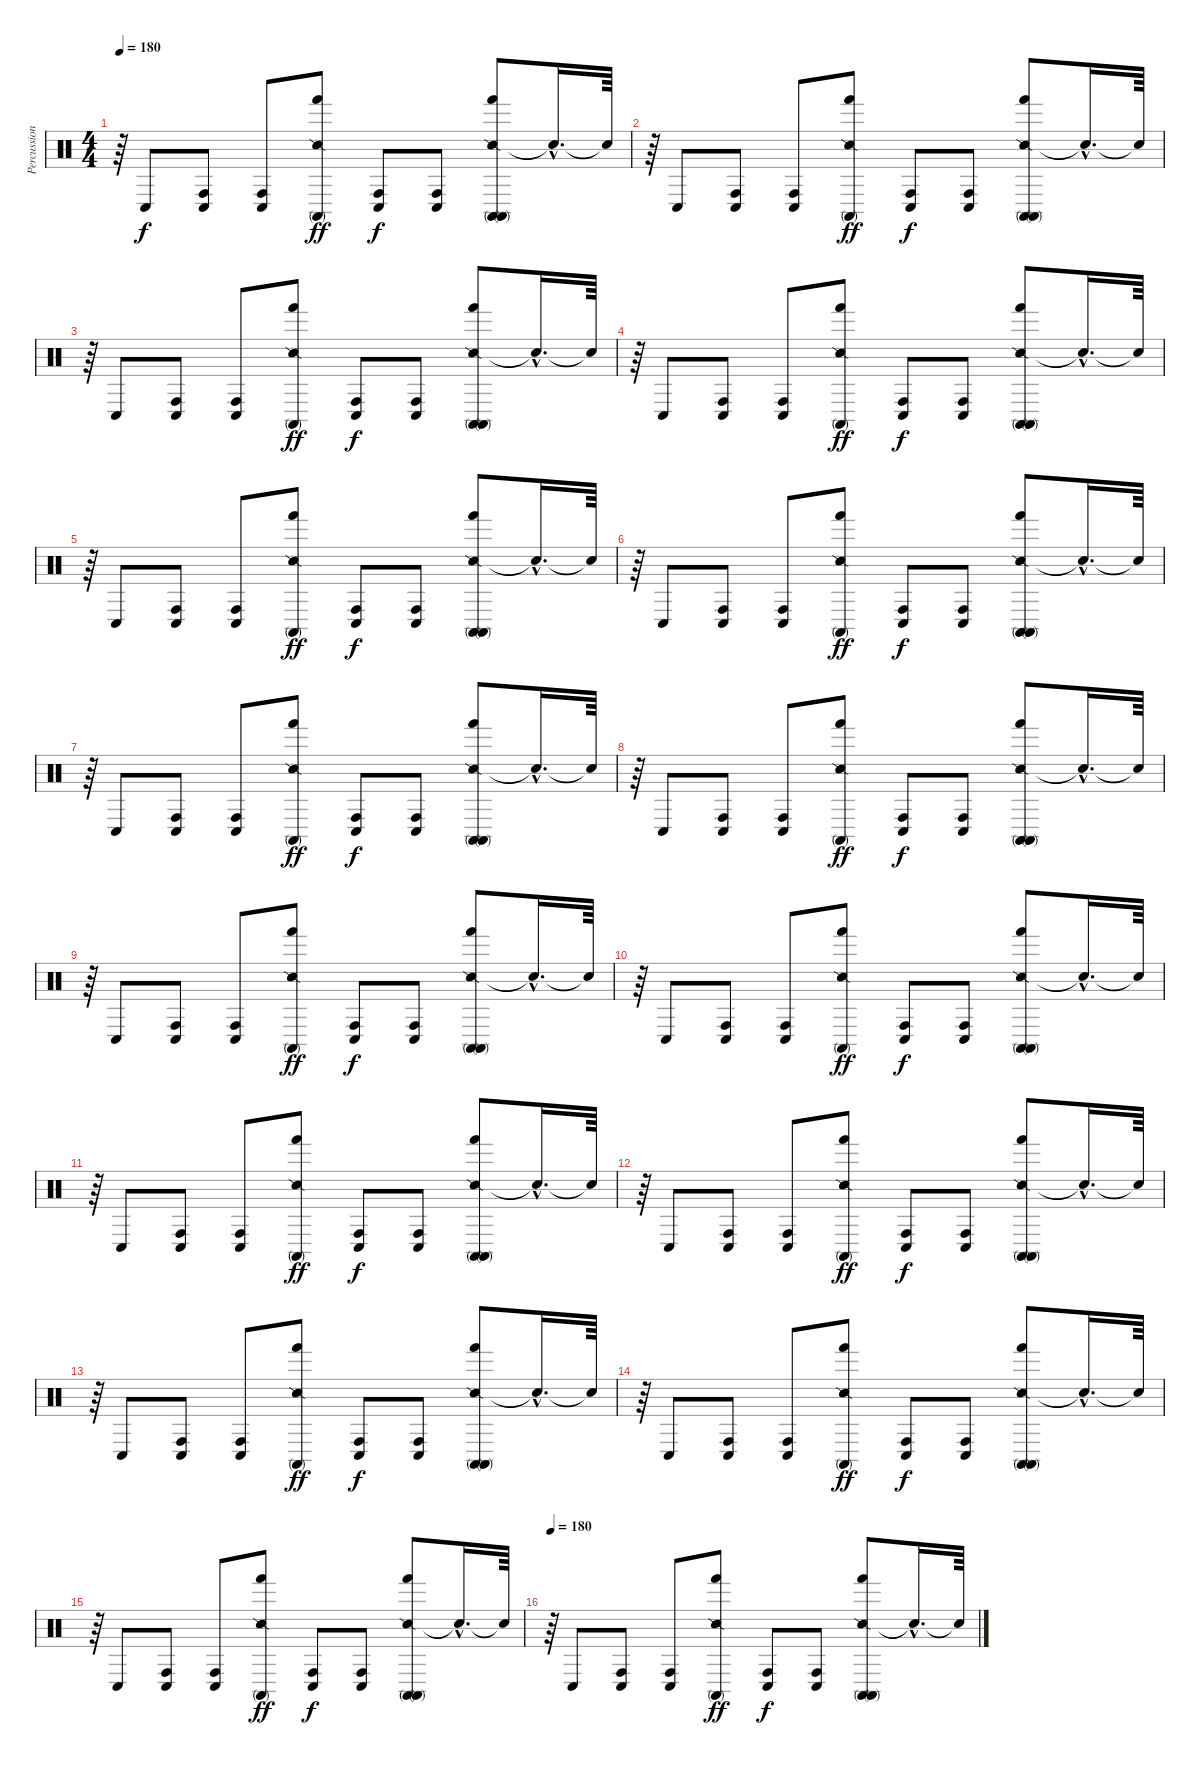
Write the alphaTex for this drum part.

\track ("Percussion" "Percussion") {instrument percussion}
\staff {score}
\articulation defaults
\ts (4 4)
\tempo 180
\clef neutral
\ks c
r.64{dy f} "Conga low (hit)".8 ("Conga high (hit)" "Conga low (hit)").8 ("Conga high (hit)" "Conga low (hit)").8 ("Snare (side stick) 2" "Hand (hit)" "Conga high (mute)").8{dy ff} ("Conga high (hit)" "Conga low (hit)").8{dy f} ("Conga high (hit)" "Conga low (hit)").8 ("Snare (side stick) 2" "Hand (hit)" "Conga high (mute)" "Conga high (mute)").8 "Snare (hit)"{hac t}.16{d} "Snare (hit)"{t}.64 |
r.64 "Conga low (hit)".8 ("Conga high (hit)" "Conga low (hit)").8 ("Conga high (hit)" "Conga low (hit)").8 ("Snare (side stick) 2" "Hand (hit)" "Conga high (mute)").8{dy ff} ("Conga high (hit)" "Conga low (hit)").8{dy f} ("Conga high (hit)" "Conga low (hit)").8 ("Snare (side stick) 2" "Hand (hit)" "Conga high (mute)" "Conga high (mute)").8 "Snare (hit)"{hac t}.16{d} "Snare (hit)"{t}.64 |
r.64 "Conga low (hit)".8 ("Conga high (hit)" "Conga low (hit)").8 ("Conga high (hit)" "Conga low (hit)").8 ("Snare (side stick) 2" "Hand (hit)" "Conga high (mute)").8{dy ff} ("Conga high (hit)" "Conga low (hit)").8{dy f} ("Conga high (hit)" "Conga low (hit)").8 ("Snare (side stick) 2" "Hand (hit)" "Conga high (mute)" "Conga high (mute)").8 "Snare (hit)"{hac t}.16{d} "Snare (hit)"{t}.64 |
r.64 "Conga low (hit)".8 ("Conga high (hit)" "Conga low (hit)").8 ("Conga high (hit)" "Conga low (hit)").8 ("Snare (side stick) 2" "Hand (hit)" "Conga high (mute)").8{dy ff} ("Conga high (hit)" "Conga low (hit)").8{dy f} ("Conga high (hit)" "Conga low (hit)").8 ("Snare (side stick) 2" "Hand (hit)" "Conga high (mute)" "Conga high (mute)").8 "Snare (hit)"{hac t}.16{d} "Snare (hit)"{t}.64 |
r.64 "Conga low (hit)".8 ("Conga high (hit)" "Conga low (hit)").8 ("Conga high (hit)" "Conga low (hit)").8 ("Snare (side stick) 2" "Hand (hit)" "Conga high (mute)").8{dy ff} ("Conga high (hit)" "Conga low (hit)").8{dy f} ("Conga high (hit)" "Conga low (hit)").8 ("Snare (side stick) 2" "Hand (hit)" "Conga high (mute)" "Conga high (mute)").8 "Snare (hit)"{hac t}.16{d} "Snare (hit)"{t}.64 |
r.64 "Conga low (hit)".8 ("Conga high (hit)" "Conga low (hit)").8 ("Conga high (hit)" "Conga low (hit)").8 ("Snare (side stick) 2" "Hand (hit)" "Conga high (mute)").8{dy ff} ("Conga high (hit)" "Conga low (hit)").8{dy f} ("Conga high (hit)" "Conga low (hit)").8 ("Snare (side stick) 2" "Hand (hit)" "Conga high (mute)" "Conga high (mute)").8 "Snare (hit)"{hac t}.16{d} "Snare (hit)"{t}.64 |
r.64 "Conga low (hit)".8 ("Conga high (hit)" "Conga low (hit)").8 ("Conga high (hit)" "Conga low (hit)").8 ("Snare (side stick) 2" "Hand (hit)" "Conga high (mute)").8{dy ff} ("Conga high (hit)" "Conga low (hit)").8{dy f} ("Conga high (hit)" "Conga low (hit)").8 ("Snare (side stick) 2" "Hand (hit)" "Conga high (mute)" "Conga high (mute)").8 "Snare (hit)"{hac t}.16{d} "Snare (hit)"{t}.64 |
r.64 "Conga low (hit)".8 ("Conga high (hit)" "Conga low (hit)").8 ("Conga high (hit)" "Conga low (hit)").8 ("Snare (side stick) 2" "Hand (hit)" "Conga high (mute)").8{dy ff} ("Conga high (hit)" "Conga low (hit)").8{dy f} ("Conga high (hit)" "Conga low (hit)").8 ("Snare (side stick) 2" "Hand (hit)" "Conga high (mute)" "Conga high (mute)").8 "Snare (hit)"{hac t}.16{d} "Snare (hit)"{t}.64 |
r.64 "Conga low (hit)".8 ("Conga high (hit)" "Conga low (hit)").8 ("Conga high (hit)" "Conga low (hit)").8 ("Snare (side stick) 2" "Hand (hit)" "Conga high (mute)").8{dy ff} ("Conga high (hit)" "Conga low (hit)").8{dy f} ("Conga high (hit)" "Conga low (hit)").8 ("Snare (side stick) 2" "Hand (hit)" "Conga high (mute)" "Conga high (mute)").8 "Snare (hit)"{hac t}.16{d} "Snare (hit)"{t}.64 |
r.64 "Conga low (hit)".8 ("Conga high (hit)" "Conga low (hit)").8 ("Conga high (hit)" "Conga low (hit)").8 ("Snare (side stick) 2" "Hand (hit)" "Conga high (mute)").8{dy ff} ("Conga high (hit)" "Conga low (hit)").8{dy f} ("Conga high (hit)" "Conga low (hit)").8 ("Snare (side stick) 2" "Hand (hit)" "Conga high (mute)" "Conga high (mute)").8 "Snare (hit)"{hac t}.16{d} "Snare (hit)"{t}.64 |
r.64 "Conga low (hit)".8 ("Conga high (hit)" "Conga low (hit)").8 ("Conga high (hit)" "Conga low (hit)").8 ("Snare (side stick) 2" "Hand (hit)" "Conga high (mute)").8{dy ff} ("Conga high (hit)" "Conga low (hit)").8{dy f} ("Conga high (hit)" "Conga low (hit)").8 ("Snare (side stick) 2" "Hand (hit)" "Conga high (mute)" "Conga high (mute)").8 "Snare (hit)"{hac t}.16{d} "Snare (hit)"{t}.64 |
r.64 "Conga low (hit)".8 ("Conga high (hit)" "Conga low (hit)").8 ("Conga high (hit)" "Conga low (hit)").8 ("Snare (side stick) 2" "Hand (hit)" "Conga high (mute)").8{dy ff} ("Conga high (hit)" "Conga low (hit)").8{dy f} ("Conga high (hit)" "Conga low (hit)").8 ("Snare (side stick) 2" "Hand (hit)" "Conga high (mute)" "Conga high (mute)").8 "Snare (hit)"{hac t}.16{d} "Snare (hit)"{t}.64 |
r.64 "Conga low (hit)".8 ("Conga high (hit)" "Conga low (hit)").8 ("Conga high (hit)" "Conga low (hit)").8 ("Snare (side stick) 2" "Hand (hit)" "Conga high (mute)").8{dy ff} ("Conga high (hit)" "Conga low (hit)").8{dy f} ("Conga high (hit)" "Conga low (hit)").8 ("Snare (side stick) 2" "Hand (hit)" "Conga high (mute)" "Conga high (mute)").8 "Snare (hit)"{hac t}.16{d} "Snare (hit)"{t}.64 |
r.64 "Conga low (hit)".8 ("Conga high (hit)" "Conga low (hit)").8 ("Conga high (hit)" "Conga low (hit)").8 ("Snare (side stick) 2" "Hand (hit)" "Conga high (mute)").8{dy ff} ("Conga high (hit)" "Conga low (hit)").8{dy f} ("Conga high (hit)" "Conga low (hit)").8 ("Snare (side stick) 2" "Hand (hit)" "Conga high (mute)" "Conga high (mute)").8 "Snare (hit)"{hac t}.16{d} "Snare (hit)"{t}.64 |
r.64 "Conga low (hit)".8 ("Conga high (hit)" "Conga low (hit)").8 ("Conga high (hit)" "Conga low (hit)").8 ("Snare (side stick) 2" "Hand (hit)" "Conga high (mute)").8{dy ff} ("Conga high (hit)" "Conga low (hit)").8{dy f} ("Conga high (hit)" "Conga low (hit)").8 ("Snare (side stick) 2" "Hand (hit)" "Conga high (mute)" "Conga high (mute)").8 "Snare (hit)"{hac t}.16{d} "Snare (hit)"{t}.64 |
\tempo 180
r.64 "Conga low (hit)".8 ("Conga high (hit)" "Conga low (hit)").8 ("Conga high (hit)" "Conga low (hit)").8 ("Snare (side stick) 2" "Hand (hit)" "Conga high (mute)").8{dy ff} ("Conga high (hit)" "Conga low (hit)").8{dy f} ("Conga high (hit)" "Conga low (hit)").8 ("Snare (side stick) 2" "Hand (hit)" "Conga high (mute)" "Conga high (mute)").8 "Snare (hit)"{hac t}.16{d} "Snare (hit)"{t}.64
